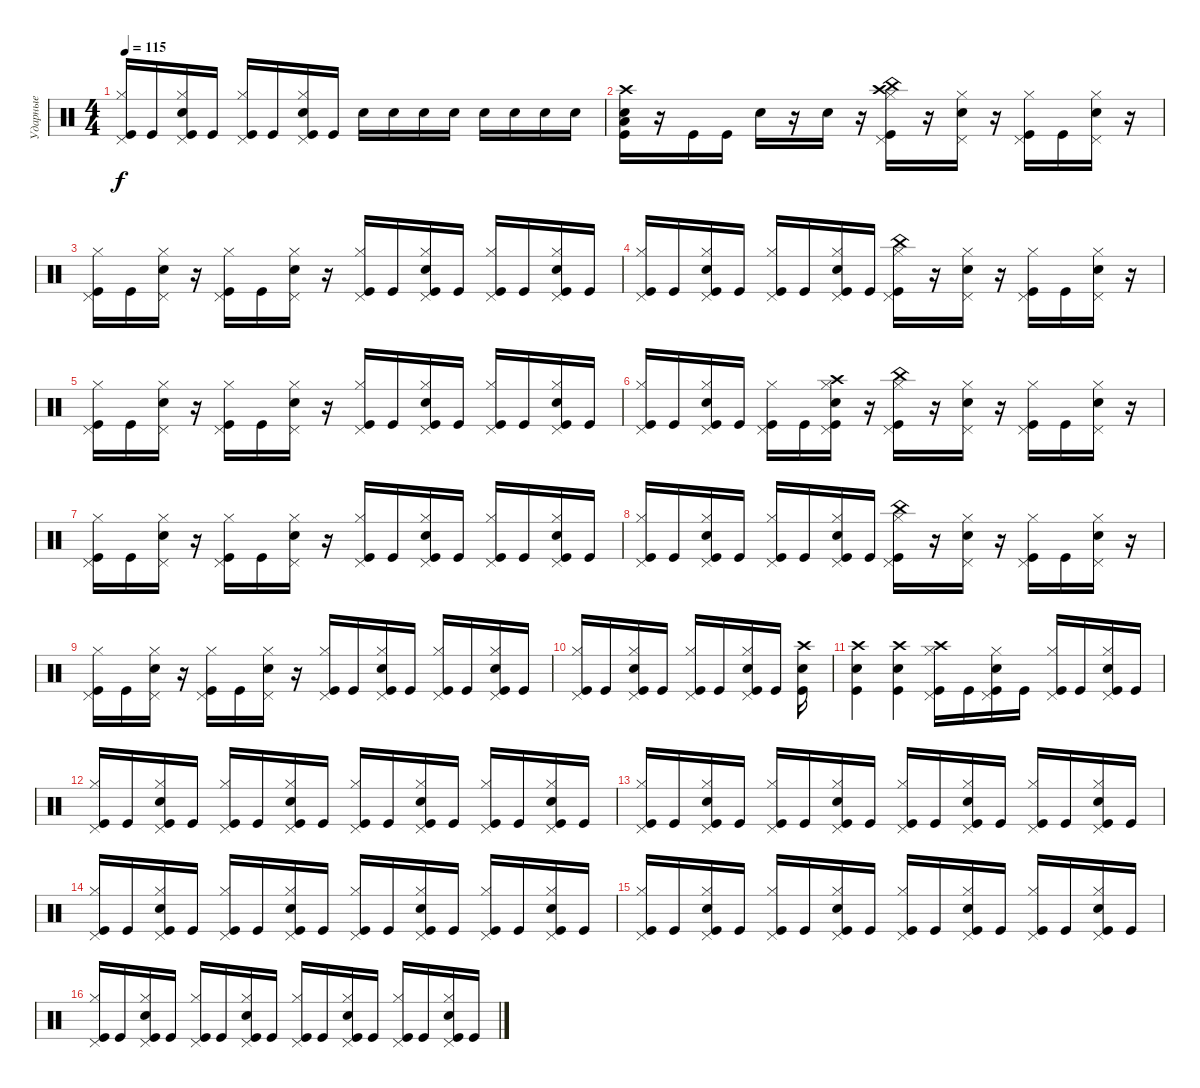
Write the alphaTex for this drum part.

\track ("Ударные" "Ударные") {instrument percussion}
\staff {score}
\articulation defaults
\ts (4 4)
\tempo 115
\clef neutral
\ks c
("Kick (hit)" "Hi-Hat (closed)" "Pedal Hi-Hat (hit)").16{dy f} "Kick (hit)".16 ("Kick (hit)" "Electric Snare (hit)" "Hi-Hat (closed)" "Pedal Hi-Hat (hit)").16 "Kick (hit)".16 ("Kick (hit)" "Pedal Hi-Hat (hit)" "Hi-Hat (closed)").16 "Kick (hit)".16 ("Kick (hit)" "Electric Snare (hit)" "Hi-Hat (closed)" "Pedal Hi-Hat (hit)").16 "Kick (hit)".16 "Electric Snare (hit)".16 "Electric Snare (hit)".16 "Electric Snare (hit)".16 "Electric Snare (hit)".16 "Electric Snare (hit)".16 "Electric Snare (hit)".16 "Electric Snare (hit)".16 "Electric Snare (hit)".16 |
("Low Tom (hit)" "Kick (hit)" "Electric Snare (hit)" "Crash high (hit)").16 r.16 "Kick (hit)".16 "Kick (hit)".16 "Electric Snare (hit)".16 r.16 "Electric Snare (hit)".16 r.16 ("Kick (hit)" "Hi-Hat (closed)" "Pedal Hi-Hat (hit)" "China (hit)" "Crash high (hit)").16 r.16 ("Electric Snare (hit)" "Pedal Hi-Hat (hit)" "Hi-Hat (closed)").16 r.16 ("Kick (hit)" "Hi-Hat (closed)" "Pedal Hi-Hat (hit)").16 "Kick (hit)".16 ("Electric Snare (hit)" "Pedal Hi-Hat (hit)" "Hi-Hat (closed)").16 r.16 |
("Kick (hit)" "Hi-Hat (closed)" "Pedal Hi-Hat (hit)").16 "Kick (hit)".16 ("Electric Snare (hit)" "Pedal Hi-Hat (hit)" "Hi-Hat (closed)").16 r.16 ("Kick (hit)" "Hi-Hat (closed)" "Pedal Hi-Hat (hit)").16 "Kick (hit)".16 ("Electric Snare (hit)" "Pedal Hi-Hat (hit)" "Hi-Hat (closed)").16 r.16 ("Kick (hit)" "Hi-Hat (closed)" "Pedal Hi-Hat (hit)").16 "Kick (hit)".16 ("Kick (hit)" "Electric Snare (hit)" "Pedal Hi-Hat (hit)" "Hi-Hat (closed)").16 "Kick (hit)".16 ("Kick (hit)" "Hi-Hat (closed)" "Pedal Hi-Hat (hit)").16 "Kick (hit)".16 ("Kick (hit)" "Electric Snare (hit)" "Pedal Hi-Hat (hit)" "Hi-Hat (closed)").16 "Kick (hit)".16 |
("Kick (hit)" "Hi-Hat (closed)" "Pedal Hi-Hat (hit)").16 "Kick (hit)".16 ("Kick (hit)" "Electric Snare (hit)" "Pedal Hi-Hat (hit)" "Hi-Hat (closed)").16 "Kick (hit)".16 ("Kick (hit)" "Hi-Hat (closed)" "Pedal Hi-Hat (hit)").16 "Kick (hit)".16 ("Kick (hit)" "Electric Snare (hit)" "Pedal Hi-Hat (hit)" "Hi-Hat (closed)").16 "Kick (hit)".16 ("Kick (hit)" "Hi-Hat (closed)" "Pedal Hi-Hat (hit)" "China (hit)").16 r.16 ("Electric Snare (hit)" "Pedal Hi-Hat (hit)" "Hi-Hat (closed)").16 r.16 ("Kick (hit)" "Hi-Hat (closed)" "Pedal Hi-Hat (hit)").16 "Kick (hit)".16 ("Electric Snare (hit)" "Pedal Hi-Hat (hit)" "Hi-Hat (closed)").16 r.16 |
("Kick (hit)" "Hi-Hat (closed)" "Pedal Hi-Hat (hit)").16 "Kick (hit)".16 ("Electric Snare (hit)" "Pedal Hi-Hat (hit)" "Hi-Hat (closed)").16 r.16 ("Kick (hit)" "Hi-Hat (closed)" "Pedal Hi-Hat (hit)").16 "Kick (hit)".16 ("Electric Snare (hit)" "Pedal Hi-Hat (hit)" "Hi-Hat (closed)").16 r.16 ("Kick (hit)" "Hi-Hat (closed)" "Pedal Hi-Hat (hit)").16 "Kick (hit)".16 ("Kick (hit)" "Electric Snare (hit)" "Pedal Hi-Hat (hit)" "Hi-Hat (closed)").16 "Kick (hit)".16 ("Kick (hit)" "Hi-Hat (closed)" "Pedal Hi-Hat (hit)").16 "Kick (hit)".16 ("Kick (hit)" "Electric Snare (hit)" "Pedal Hi-Hat (hit)" "Hi-Hat (closed)").16 "Kick (hit)".16 |
("Kick (hit)" "Hi-Hat (closed)" "Pedal Hi-Hat (hit)").16 "Kick (hit)".16 ("Kick (hit)" "Electric Snare (hit)" "Pedal Hi-Hat (hit)" "Hi-Hat (closed)").16 "Kick (hit)".16 ("Kick (hit)" "Hi-Hat (closed)" "Pedal Hi-Hat (hit)").16 "Kick (hit)".16 ("Kick (hit)" "Electric Snare (hit)" "Crash high (hit)" "Pedal Hi-Hat (hit)" "Hi-Hat (closed)").16 r.16 ("Kick (hit)" "Hi-Hat (closed)" "Pedal Hi-Hat (hit)" "China (hit)").16 r.16 ("Electric Snare (hit)" "Pedal Hi-Hat (hit)" "Hi-Hat (closed)").16 r.16 ("Kick (hit)" "Hi-Hat (closed)" "Pedal Hi-Hat (hit)").16 "Kick (hit)".16 ("Electric Snare (hit)" "Pedal Hi-Hat (hit)" "Hi-Hat (closed)").16 r.16 |
("Kick (hit)" "Hi-Hat (closed)" "Pedal Hi-Hat (hit)").16 "Kick (hit)".16 ("Electric Snare (hit)" "Pedal Hi-Hat (hit)" "Hi-Hat (closed)").16 r.16 ("Kick (hit)" "Hi-Hat (closed)" "Pedal Hi-Hat (hit)").16 "Kick (hit)".16 ("Electric Snare (hit)" "Pedal Hi-Hat (hit)" "Hi-Hat (closed)").16 r.16 ("Kick (hit)" "Hi-Hat (closed)" "Pedal Hi-Hat (hit)").16 "Kick (hit)".16 ("Kick (hit)" "Electric Snare (hit)" "Pedal Hi-Hat (hit)" "Hi-Hat (closed)").16 "Kick (hit)".16 ("Kick (hit)" "Hi-Hat (closed)" "Pedal Hi-Hat (hit)").16 "Kick (hit)".16 ("Kick (hit)" "Electric Snare (hit)" "Pedal Hi-Hat (hit)" "Hi-Hat (closed)").16 "Kick (hit)".16 |
("Kick (hit)" "Hi-Hat (closed)" "Pedal Hi-Hat (hit)").16 "Kick (hit)".16 ("Kick (hit)" "Electric Snare (hit)" "Pedal Hi-Hat (hit)" "Hi-Hat (closed)").16 "Kick (hit)".16 ("Kick (hit)" "Hi-Hat (closed)" "Pedal Hi-Hat (hit)").16 "Kick (hit)".16 ("Kick (hit)" "Electric Snare (hit)" "Pedal Hi-Hat (hit)" "Hi-Hat (closed)").16 "Kick (hit)".16 ("Kick (hit)" "Hi-Hat (closed)" "Pedal Hi-Hat (hit)" "China (hit)").16 r.16 ("Electric Snare (hit)" "Pedal Hi-Hat (hit)" "Hi-Hat (closed)").16 r.16 ("Kick (hit)" "Hi-Hat (closed)" "Pedal Hi-Hat (hit)").16 "Kick (hit)".16 ("Electric Snare (hit)" "Pedal Hi-Hat (hit)" "Hi-Hat (closed)").16 r.16 |
("Kick (hit)" "Hi-Hat (closed)" "Pedal Hi-Hat (hit)").16 "Kick (hit)".16 ("Electric Snare (hit)" "Pedal Hi-Hat (hit)" "Hi-Hat (closed)").16 r.16 ("Kick (hit)" "Hi-Hat (closed)" "Pedal Hi-Hat (hit)").16 "Kick (hit)".16 ("Electric Snare (hit)" "Pedal Hi-Hat (hit)" "Hi-Hat (closed)").16 r.16 ("Kick (hit)" "Hi-Hat (closed)" "Pedal Hi-Hat (hit)").16 "Kick (hit)".16 ("Kick (hit)" "Electric Snare (hit)" "Pedal Hi-Hat (hit)" "Hi-Hat (closed)").16 "Kick (hit)".16 ("Kick (hit)" "Hi-Hat (closed)" "Pedal Hi-Hat (hit)").16 "Kick (hit)".16 ("Kick (hit)" "Electric Snare (hit)" "Pedal Hi-Hat (hit)" "Hi-Hat (closed)").16 "Kick (hit)".16 |
("Kick (hit)" "Hi-Hat (closed)" "Pedal Hi-Hat (hit)").16 "Kick (hit)".16 ("Kick (hit)" "Electric Snare (hit)" "Pedal Hi-Hat (hit)" "Hi-Hat (closed)").16 "Kick (hit)".16 ("Kick (hit)" "Hi-Hat (closed)" "Pedal Hi-Hat (hit)").16 "Kick (hit)".16 ("Kick (hit)" "Electric Snare (hit)" "Pedal Hi-Hat (hit)" "Hi-Hat (closed)").16 "Kick (hit)".16 ("Kick (hit)" "Electric Snare (hit)" "Crash high (hit)").16 |
("Kick (hit)" "Electric Snare (hit)" "Crash high (hit)").4 ("Crash high (hit)" "Kick (hit)" "Electric Snare (hit)").4 ("Kick (hit)" "Hi-Hat (closed)" "Pedal Hi-Hat (hit)" "Crash high (hit)").16 "Kick (hit)".16 ("Kick (hit)" "Electric Snare (hit)" "Pedal Hi-Hat (hit)" "Hi-Hat (closed)").16 "Kick (hit)".16 ("Kick (hit)" "Hi-Hat (closed)" "Pedal Hi-Hat (hit)").16 "Kick (hit)".16 ("Kick (hit)" "Electric Snare (hit)" "Pedal Hi-Hat (hit)" "Hi-Hat (closed)").16 "Kick (hit)".16 |
("Kick (hit)" "Hi-Hat (closed)" "Pedal Hi-Hat (hit)").16 "Kick (hit)".16 ("Kick (hit)" "Electric Snare (hit)" "Pedal Hi-Hat (hit)" "Hi-Hat (closed)").16 "Kick (hit)".16 ("Kick (hit)" "Hi-Hat (closed)" "Pedal Hi-Hat (hit)").16 "Kick (hit)".16 ("Kick (hit)" "Electric Snare (hit)" "Pedal Hi-Hat (hit)" "Hi-Hat (closed)").16 "Kick (hit)".16 ("Kick (hit)" "Hi-Hat (closed)" "Pedal Hi-Hat (hit)").16 "Kick (hit)".16 ("Kick (hit)" "Hi-Hat (closed)" "Pedal Hi-Hat (hit)" "Electric Snare (hit)").16 "Kick (hit)".16 ("Kick (hit)" "Pedal Hi-Hat (hit)" "Hi-Hat (closed)").16 "Kick (hit)".16 ("Kick (hit)" "Electric Snare (hit)" "Hi-Hat (closed)" "Pedal Hi-Hat (hit)").16 "Kick (hit)".16 |
("Kick (hit)" "Hi-Hat (closed)" "Pedal Hi-Hat (hit)").16 "Kick (hit)".16 ("Kick (hit)" "Electric Snare (hit)" "Pedal Hi-Hat (hit)" "Hi-Hat (closed)").16 "Kick (hit)".16 ("Kick (hit)" "Hi-Hat (closed)" "Pedal Hi-Hat (hit)").16 "Kick (hit)".16 ("Kick (hit)" "Electric Snare (hit)" "Pedal Hi-Hat (hit)" "Hi-Hat (closed)").16 "Kick (hit)".16 ("Kick (hit)" "Hi-Hat (closed)" "Pedal Hi-Hat (hit)").16 "Kick (hit)".16 ("Kick (hit)" "Hi-Hat (closed)" "Pedal Hi-Hat (hit)" "Electric Snare (hit)").16 "Kick (hit)".16 ("Kick (hit)" "Pedal Hi-Hat (hit)" "Hi-Hat (closed)").16 "Kick (hit)".16 ("Kick (hit)" "Electric Snare (hit)" "Hi-Hat (closed)" "Pedal Hi-Hat (hit)").16 "Kick (hit)".16 |
("Kick (hit)" "Hi-Hat (closed)" "Pedal Hi-Hat (hit)").16 "Kick (hit)".16 ("Kick (hit)" "Electric Snare (hit)" "Pedal Hi-Hat (hit)" "Hi-Hat (closed)").16 "Kick (hit)".16 ("Kick (hit)" "Hi-Hat (closed)" "Pedal Hi-Hat (hit)").16 "Kick (hit)".16 ("Kick (hit)" "Electric Snare (hit)" "Pedal Hi-Hat (hit)" "Hi-Hat (closed)").16 "Kick (hit)".16 ("Kick (hit)" "Hi-Hat (closed)" "Pedal Hi-Hat (hit)").16 "Kick (hit)".16 ("Kick (hit)" "Hi-Hat (closed)" "Pedal Hi-Hat (hit)" "Electric Snare (hit)").16 "Kick (hit)".16 ("Kick (hit)" "Pedal Hi-Hat (hit)" "Hi-Hat (closed)").16 "Kick (hit)".16 ("Kick (hit)" "Electric Snare (hit)" "Hi-Hat (closed)" "Pedal Hi-Hat (hit)").16 "Kick (hit)".16 |
("Kick (hit)" "Hi-Hat (closed)" "Pedal Hi-Hat (hit)").16 "Kick (hit)".16 ("Kick (hit)" "Electric Snare (hit)" "Pedal Hi-Hat (hit)" "Hi-Hat (closed)").16 "Kick (hit)".16 ("Kick (hit)" "Hi-Hat (closed)" "Pedal Hi-Hat (hit)").16 "Kick (hit)".16 ("Kick (hit)" "Electric Snare (hit)" "Pedal Hi-Hat (hit)" "Hi-Hat (closed)").16 "Kick (hit)".16 ("Kick (hit)" "Hi-Hat (closed)" "Pedal Hi-Hat (hit)").16 "Kick (hit)".16 ("Kick (hit)" "Hi-Hat (closed)" "Pedal Hi-Hat (hit)" "Electric Snare (hit)").16 "Kick (hit)".16 ("Kick (hit)" "Pedal Hi-Hat (hit)" "Hi-Hat (closed)").16 "Kick (hit)".16 ("Kick (hit)" "Electric Snare (hit)" "Hi-Hat (closed)" "Pedal Hi-Hat (hit)").16 "Kick (hit)".16 |
("Kick (hit)" "Hi-Hat (closed)" "Pedal Hi-Hat (hit)").16 "Kick (hit)".16 ("Kick (hit)" "Electric Snare (hit)" "Pedal Hi-Hat (hit)" "Hi-Hat (closed)").16 "Kick (hit)".16 ("Kick (hit)" "Hi-Hat (closed)" "Pedal Hi-Hat (hit)").16 "Kick (hit)".16 ("Kick (hit)" "Electric Snare (hit)" "Pedal Hi-Hat (hit)" "Hi-Hat (closed)").16 "Kick (hit)".16 ("Kick (hit)" "Hi-Hat (closed)" "Pedal Hi-Hat (hit)").16 "Kick (hit)".16 ("Kick (hit)" "Hi-Hat (closed)" "Pedal Hi-Hat (hit)" "Electric Snare (hit)").16 "Kick (hit)".16 ("Kick (hit)" "Pedal Hi-Hat (hit)" "Hi-Hat (closed)").16 "Kick (hit)".16 ("Kick (hit)" "Electric Snare (hit)" "Hi-Hat (closed)" "Pedal Hi-Hat (hit)").16 "Kick (hit)".16
